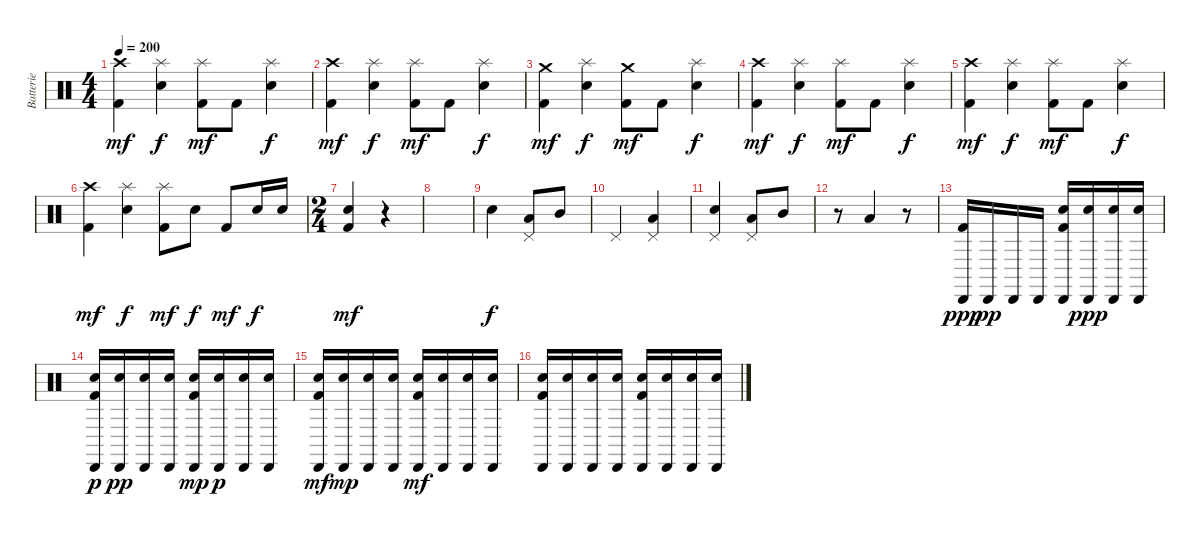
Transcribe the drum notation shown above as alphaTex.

\track ("Batterie" "Batterie") {instrument percussion}
\staff {score}
\articulation defaults
\ts (4 4)
\tempo 200
\clef neutral
\ks c
("Crash high (hit)" "Kick (hit) 2").4{dy mf} ("Splash (hit)" "Snare (hit) 2").4{dy f} ("Splash (hit)" "Kick (hit) 2").8{dy mf} "Kick (hit) 2".8 ("Splash (hit)" "Snare (hit) 2").4{dy f} |
("Crash high (hit)" "Kick (hit) 2").4{dy mf} ("Splash (hit)" "Snare (hit) 2").4{dy f} ("Splash (hit)" "Kick (hit) 2").8{dy mf} "Kick (hit) 2".8 ("Splash (hit)" "Snare (hit) 2").4{dy f} |
("Crash medium (hit)" "Kick (hit) 2").4{dy mf} ("Splash (hit)" "Snare (hit) 2").4{dy f} ("Crash medium (hit)" "Kick (hit) 2").8{dy mf} "Kick (hit) 2".8 ("Splash (hit)" "Snare (hit) 2").4{dy f} |
("Crash high (hit)" "Kick (hit) 2").4{dy mf} ("Splash (hit)" "Snare (hit) 2").4{dy f} ("Splash (hit)" "Kick (hit) 2").8{dy mf} "Kick (hit) 2".8 ("Splash (hit)" "Snare (hit) 2").4{dy f} |
("Crash high (hit)" "Kick (hit) 2").4{dy mf} ("Splash (hit)" "Snare (hit) 2").4{dy f} ("Splash (hit)" "Kick (hit) 2").8{dy mf} "Kick (hit) 2".8 ("Splash (hit)" "Snare (hit) 2").4{dy f} |
("Crash high (hit)" "Kick (hit) 2").4{dy mf} ("Splash (hit)" "Snare (hit) 2").4{dy f} ("Splash (hit)" "Kick (hit) 2").8{dy mf} "Snare (hit) 2".8{dy f} "Kick (hit) 2".8{dy mf} "Snare (hit) 2".16{dy f} "Snare (hit) 2".16 |
\ts (2 4)
("Snare (hit) 2" "Kick (hit) 2").4{dy mf} r.4 |
|
"Snare (hit) 2".4{dy f} ("Pedal Hi-Hat (hit)" "Low Tom (hit)").8 "Mid Tom (hit)".8 |
"Pedal Hi-Hat (hit)".4 ("Pedal Hi-Hat (hit)" "Low Tom (hit)").4 |
("Pedal Hi-Hat (hit)" "Snare (hit) 2").4 ("Pedal Hi-Hat (hit)" "Low Tom (hit)").8 "Mid Tom (hit)".8 |
r.8 "Low Tom (hit)".4 r.8 |
("Cabasa (hit)" "Kick (hit) 2").16{dy ppp} "Cabasa (hit)".16{dy pp} "Cabasa (hit)".16 "Cabasa (hit)".16 ("Cabasa (hit)" "Snare (hit) 2" "Kick (hit) 2").16 ("Cabasa (hit)" "Snare (hit) 2").16{dy ppp} ("Cabasa (hit)" "Snare (hit) 2").16 ("Cabasa (hit)" "Snare (hit) 2").16 |
("Cabasa (hit)" "Snare (hit) 2" "Kick (hit) 2").16{dy p} ("Cabasa (hit)" "Snare (hit) 2").16{dy pp} ("Cabasa (hit)" "Snare (hit) 2").16 ("Cabasa (hit)" "Snare (hit) 2").16 ("Cabasa (hit)" "Snare (hit) 2" "Kick (hit) 2").16{dy mp} ("Cabasa (hit)" "Snare (hit) 2").16{dy p} ("Cabasa (hit)" "Snare (hit) 2").16 ("Cabasa (hit)" "Snare (hit) 2").16 |
("Cabasa (hit)" "Snare (hit) 2" "Kick (hit) 2").16{dy mf} ("Cabasa (hit)" "Snare (hit) 2").16{dy mp} ("Cabasa (hit)" "Snare (hit) 2").16 ("Cabasa (hit)" "Snare (hit) 2").16 ("Cabasa (hit)" "Snare (hit) 2" "Kick (hit) 2").16{dy mf} ("Cabasa (hit)" "Snare (hit) 2").16 ("Cabasa (hit)" "Snare (hit) 2").16 ("Cabasa (hit)" "Snare (hit) 2").16 |
("Cabasa (hit)" "Snare (hit) 2" "Kick (hit) 2").16 ("Cabasa (hit)" "Snare (hit) 2").16 ("Cabasa (hit)" "Snare (hit) 2").16 ("Cabasa (hit)" "Snare (hit) 2").16 ("Cabasa (hit)" "Snare (hit) 2" "Kick (hit) 2").16 ("Cabasa (hit)" "Snare (hit) 2").16 ("Cabasa (hit)" "Snare (hit) 2").16 ("Cabasa (hit)" "Snare (hit) 2").16
